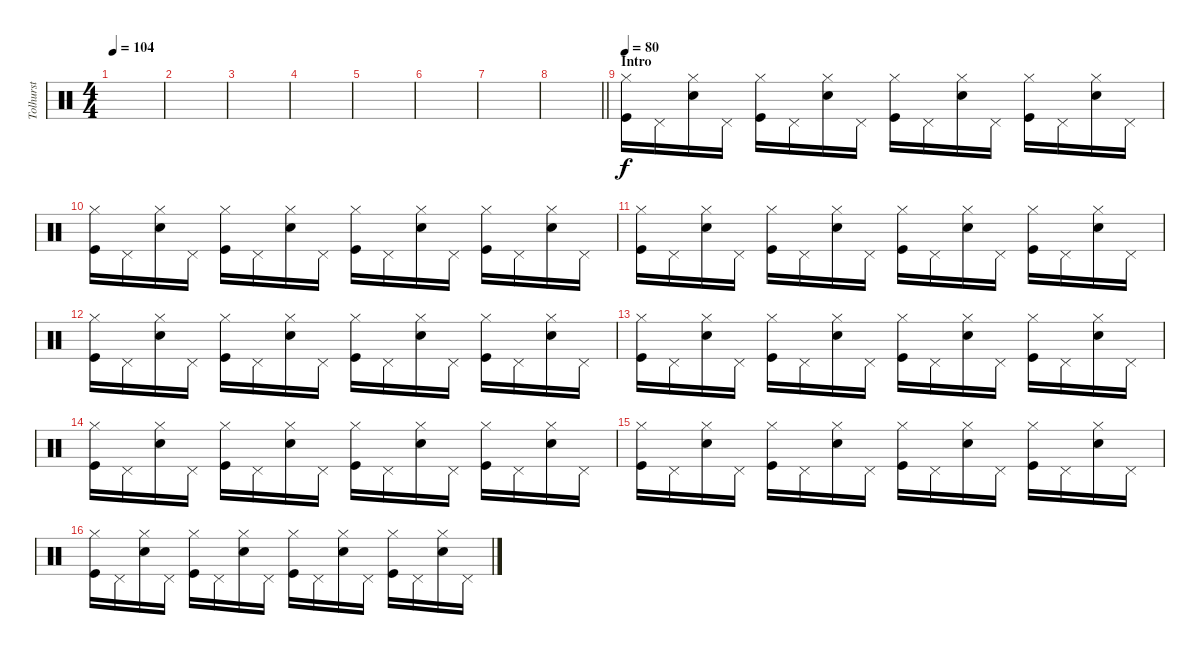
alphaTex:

\track ("Tolhurst" "Tolhurst") {instrument percussion}
\staff {score}
\articulation defaults
\ts (4 4)
\tempo 104
\clef neutral
\ks c
|
|
|
|
|
|
|
\barLineRight lightlight
|
\section ("" "Intro")
\tempo 80
("Kick (hit)" "Hi-Hat (closed)").16{dy f} "Pedal Hi-Hat (hit)".16 ("Snare (hit) 2" "Hi-Hat (closed)").16 "Pedal Hi-Hat (hit)".16 ("Kick (hit)" "Hi-Hat (closed)").16 "Pedal Hi-Hat (hit)".16 ("Snare (hit) 2" "Hi-Hat (closed)").16 "Pedal Hi-Hat (hit)".16 ("Kick (hit)" "Hi-Hat (closed)").16 "Pedal Hi-Hat (hit)".16 ("Snare (hit) 2" "Hi-Hat (closed)").16 "Pedal Hi-Hat (hit)".16 ("Kick (hit)" "Hi-Hat (closed)").16 "Pedal Hi-Hat (hit)".16 ("Snare (hit) 2" "Hi-Hat (closed)").16 "Pedal Hi-Hat (hit)".16 |
("Kick (hit)" "Hi-Hat (closed)").16 "Pedal Hi-Hat (hit)".16 ("Snare (hit) 2" "Hi-Hat (closed)").16 "Pedal Hi-Hat (hit)".16 ("Kick (hit)" "Hi-Hat (closed)").16 "Pedal Hi-Hat (hit)".16 ("Snare (hit) 2" "Hi-Hat (closed)").16 "Pedal Hi-Hat (hit)".16 ("Kick (hit)" "Hi-Hat (closed)").16 "Pedal Hi-Hat (hit)".16 ("Snare (hit) 2" "Hi-Hat (closed)").16 "Pedal Hi-Hat (hit)".16 ("Kick (hit)" "Hi-Hat (closed)").16 "Pedal Hi-Hat (hit)".16 ("Snare (hit) 2" "Hi-Hat (closed)").16 "Pedal Hi-Hat (hit)".16 |
("Kick (hit)" "Hi-Hat (closed)").16 "Pedal Hi-Hat (hit)".16 ("Snare (hit) 2" "Hi-Hat (closed)").16 "Pedal Hi-Hat (hit)".16 ("Kick (hit)" "Hi-Hat (closed)").16 "Pedal Hi-Hat (hit)".16 ("Snare (hit) 2" "Hi-Hat (closed)").16 "Pedal Hi-Hat (hit)".16 ("Kick (hit)" "Hi-Hat (closed)").16 "Pedal Hi-Hat (hit)".16 ("Snare (hit) 2" "Hi-Hat (closed)").16 "Pedal Hi-Hat (hit)".16 ("Kick (hit)" "Hi-Hat (closed)").16 "Pedal Hi-Hat (hit)".16 ("Snare (hit) 2" "Hi-Hat (closed)").16 "Pedal Hi-Hat (hit)".16 |
("Kick (hit)" "Hi-Hat (closed)").16 "Pedal Hi-Hat (hit)".16 ("Snare (hit) 2" "Hi-Hat (closed)").16 "Pedal Hi-Hat (hit)".16 ("Kick (hit)" "Hi-Hat (closed)").16 "Pedal Hi-Hat (hit)".16 ("Snare (hit) 2" "Hi-Hat (closed)").16 "Pedal Hi-Hat (hit)".16 ("Kick (hit)" "Hi-Hat (closed)").16 "Pedal Hi-Hat (hit)".16 ("Snare (hit) 2" "Hi-Hat (closed)").16 "Pedal Hi-Hat (hit)".16 ("Kick (hit)" "Hi-Hat (closed)").16 "Pedal Hi-Hat (hit)".16 ("Snare (hit) 2" "Hi-Hat (closed)").16 "Pedal Hi-Hat (hit)".16 |
("Kick (hit)" "Hi-Hat (closed)").16 "Pedal Hi-Hat (hit)".16 ("Snare (hit) 2" "Hi-Hat (closed)").16 "Pedal Hi-Hat (hit)".16 ("Kick (hit)" "Hi-Hat (closed)").16 "Pedal Hi-Hat (hit)".16 ("Snare (hit) 2" "Hi-Hat (closed)").16 "Pedal Hi-Hat (hit)".16 ("Kick (hit)" "Hi-Hat (closed)").16 "Pedal Hi-Hat (hit)".16 ("Snare (hit) 2" "Hi-Hat (closed)").16 "Pedal Hi-Hat (hit)".16 ("Kick (hit)" "Hi-Hat (closed)").16 "Pedal Hi-Hat (hit)".16 ("Snare (hit) 2" "Hi-Hat (closed)").16 "Pedal Hi-Hat (hit)".16 |
("Kick (hit)" "Hi-Hat (closed)").16 "Pedal Hi-Hat (hit)".16 ("Snare (hit) 2" "Hi-Hat (closed)").16 "Pedal Hi-Hat (hit)".16 ("Kick (hit)" "Hi-Hat (closed)").16 "Pedal Hi-Hat (hit)".16 ("Snare (hit) 2" "Hi-Hat (closed)").16 "Pedal Hi-Hat (hit)".16 ("Kick (hit)" "Hi-Hat (closed)").16 "Pedal Hi-Hat (hit)".16 ("Snare (hit) 2" "Hi-Hat (closed)").16 "Pedal Hi-Hat (hit)".16 ("Kick (hit)" "Hi-Hat (closed)").16 "Pedal Hi-Hat (hit)".16 ("Snare (hit) 2" "Hi-Hat (closed)").16 "Pedal Hi-Hat (hit)".16 |
("Kick (hit)" "Hi-Hat (closed)").16 "Pedal Hi-Hat (hit)".16 ("Snare (hit) 2" "Hi-Hat (closed)").16 "Pedal Hi-Hat (hit)".16 ("Kick (hit)" "Hi-Hat (closed)").16 "Pedal Hi-Hat (hit)".16 ("Snare (hit) 2" "Hi-Hat (closed)").16 "Pedal Hi-Hat (hit)".16 ("Kick (hit)" "Hi-Hat (closed)").16 "Pedal Hi-Hat (hit)".16 ("Snare (hit) 2" "Hi-Hat (closed)").16 "Pedal Hi-Hat (hit)".16 ("Kick (hit)" "Hi-Hat (closed)").16 "Pedal Hi-Hat (hit)".16 ("Snare (hit) 2" "Hi-Hat (closed)").16 "Pedal Hi-Hat (hit)".16 |
("Kick (hit)" "Hi-Hat (closed)").16 "Pedal Hi-Hat (hit)".16 ("Snare (hit) 2" "Hi-Hat (closed)").16 "Pedal Hi-Hat (hit)".16 ("Kick (hit)" "Hi-Hat (closed)").16 "Pedal Hi-Hat (hit)".16 ("Snare (hit) 2" "Hi-Hat (closed)").16 "Pedal Hi-Hat (hit)".16 ("Kick (hit)" "Hi-Hat (closed)").16 "Pedal Hi-Hat (hit)".16 ("Snare (hit) 2" "Hi-Hat (closed)").16 "Pedal Hi-Hat (hit)".16 ("Kick (hit)" "Hi-Hat (closed)").16 "Pedal Hi-Hat (hit)".16 ("Snare (hit) 2" "Hi-Hat (closed)").16 "Pedal Hi-Hat (hit)".16
